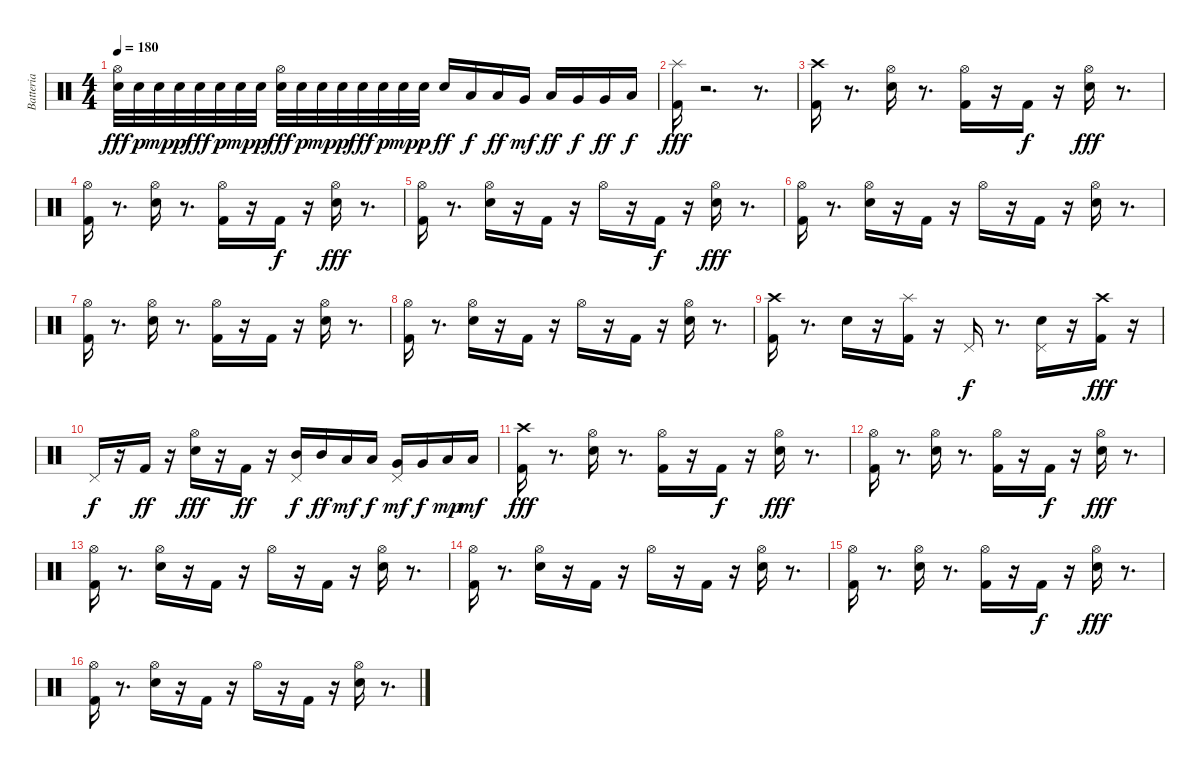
\track ("Batteria" "Batteria") {instrument percussion}
\staff {score}
\articulation defaults
\ts (4 4)
\tempo 180
\clef neutral
\ks c
("Electric Snare (hit)" "Hi-Hat (open)").32{dy fff} "Electric Snare (hit)".32{dy p} "Electric Snare (hit)".32{dy mp} "Electric Snare (hit)".32{dy p} "Electric Snare (hit)".32{dy fff} "Electric Snare (hit)".32{dy p} "Electric Snare (hit)".32{dy mp} "Electric Snare (hit)".32{dy p} ("Electric Snare (hit)" "Hi-Hat (open)").32{dy fff} "Electric Snare (hit)".32{dy p} "Electric Snare (hit)".32{dy mp} "Electric Snare (hit)".32{dy p} "Electric Snare (hit)".32{dy fff} "Electric Snare (hit)".32{dy p} "Electric Snare (hit)".32{dy mp} "Electric Snare (hit)".32{dy p} "Electric Snare (hit)".16{dy ff} "Low Tom (hit)".16{dy f} "Low Tom (hit)".16{dy ff} "Very Low Tom (hit)".16{dy mf} "Low Tom (hit)".16{dy ff} "Very Low Tom (hit)".16{dy f} "Very Low Tom (hit)".16{dy ff} "Low Floor Tom (hit)".16{dy f} |
("Splash (hit)" "Kick (hit) 2").16{dy fff} r.2{d} r.8{d} |
("Crash high (hit)" "Kick (hit) 2").16 r.8{d} ("Electric Snare (hit)" "Hi-Hat (open)").16 r.8{d} ("Kick (hit) 2" "Hi-Hat (open)").16 r.16 "Kick (hit) 2".16{dy f} r.16 ("Electric Snare (hit)" "Hi-Hat (open)").16{dy fff} r.8{d} |
("Kick (hit) 2" "Hi-Hat (open)").16 r.8{d} ("Electric Snare (hit)" "Hi-Hat (open)").16 r.8{d} ("Hi-Hat (open)" "Kick (hit) 2").16 r.16 "Kick (hit) 2".16{dy f} r.16 ("Hi-Hat (open)" "Electric Snare (hit)").16{dy fff} r.8{d} |
("Kick (hit) 2" "Hi-Hat (open)").16 r.8{d} ("Hi-Hat (open)" "Electric Snare (hit)").16 r.16 "Kick (hit) 2".16 r.16 "Hi-Hat (open)".16 r.16 "Kick (hit) 2".16{dy f} r.16 ("Electric Snare (hit)" "Hi-Hat (open)").16{dy fff} r.8{d} |
("Hi-Hat (open)" "Kick (hit) 2").16 r.8{d} ("Electric Snare (hit)" "Hi-Hat (open)").16 r.16 "Kick (hit) 2".16 r.16 "Hi-Hat (open)".16 r.16 "Kick (hit) 2".16 r.16 ("Electric Snare (hit)" "Hi-Hat (open)").16 r.8{d} |
("Kick (hit) 2" "Hi-Hat (open)").16 r.8{d} ("Electric Snare (hit)" "Hi-Hat (open)").16 r.8{d} ("Hi-Hat (open)" "Kick (hit) 2").16 r.16 "Kick (hit) 2".16 r.16 ("Hi-Hat (open)" "Electric Snare (hit)").16 r.8{d} |
("Kick (hit) 2" "Hi-Hat (open)").16 r.8{d} ("Hi-Hat (open)" "Electric Snare (hit)").16 r.16 "Kick (hit) 2".16 r.16 "Hi-Hat (open)".16 r.16 "Kick (hit) 2".16 r.16 ("Electric Snare (hit)" "Hi-Hat (open)").16 r.8{d} |
("Crash high (hit)" "Kick (hit) 2").16 r.8{d} "Electric Snare (hit)".16 r.16 ("Splash (hit)" "Kick (hit) 2").16 r.16 "Pedal Hi-Hat (hit)".16{dy f} r.8{d} ("Pedal Hi-Hat (hit)" "Electric Snare (hit)").16 r.16 ("Crash high (hit)" "Kick (hit) 2").16{dy fff} r.16 |
"Pedal Hi-Hat (hit)".16{dy f} r.16 "Kick (hit) 2".16{dy ff} r.16 ("Electric Snare (hit)" "Hi-Hat (open)").16{dy fff} r.16 "Kick (hit) 2".16{dy ff} r.16 ("Pedal Hi-Hat (hit)" "Mid Tom (hit)").16{dy f} "Mid Tom (hit)".16{dy ff} "Low Tom (hit)".16{dy mf} "Low Tom (hit)".16{dy f} ("Pedal Hi-Hat (hit)" "Very Low Tom (hit)").16{dy mf} "Very Low Tom (hit)".16{dy f} "Low Floor Tom (hit)".16{dy mp} "Low Floor Tom (hit)".16{dy mf} |
("Kick (hit) 2" "Crash high (hit)").16{dy fff} r.8{d} ("Hi-Hat (open)" "Electric Snare (hit)").16 r.8{d} ("Hi-Hat (open)" "Kick (hit) 2").16 r.16 "Kick (hit) 2".16{dy f} r.16 ("Hi-Hat (open)" "Electric Snare (hit)").16{dy fff} r.8{d} |
("Hi-Hat (open)" "Kick (hit) 2").16 r.8{d} ("Hi-Hat (open)" "Electric Snare (hit)").16 r.8{d} ("Kick (hit) 2" "Hi-Hat (open)").16 r.16 "Kick (hit) 2".16{dy f} r.16 ("Electric Snare (hit)" "Hi-Hat (open)").16{dy fff} r.8{d} |
("Hi-Hat (open)" "Kick (hit) 2").16 r.8{d} ("Electric Snare (hit)" "Hi-Hat (open)").16 r.16 "Kick (hit) 2".16 r.16 "Hi-Hat (open)".16 r.16 "Kick (hit) 2".16 r.16 ("Hi-Hat (open)" "Electric Snare (hit)").16 r.8{d} |
("Kick (hit) 2" "Hi-Hat (open)").16 r.8{d} ("Hi-Hat (open)" "Electric Snare (hit)").16 r.16 "Kick (hit) 2".16 r.16 "Hi-Hat (open)".16 r.16 "Kick (hit) 2".16 r.16 ("Hi-Hat (open)" "Electric Snare (hit)").16 r.8{d} |
("Hi-Hat (open)" "Kick (hit) 2").16 r.8{d} ("Hi-Hat (open)" "Electric Snare (hit)").16 r.8{d} ("Kick (hit) 2" "Hi-Hat (open)").16 r.16 "Kick (hit) 2".16{dy f} r.16 ("Electric Snare (hit)" "Hi-Hat (open)").16{dy fff} r.8{d} |
("Hi-Hat (open)" "Kick (hit) 2").16 r.8{d} ("Electric Snare (hit)" "Hi-Hat (open)").16 r.16 "Kick (hit) 2".16 r.16 "Hi-Hat (open)".16 r.16 "Kick (hit) 2".16 r.16 ("Hi-Hat (open)" "Electric Snare (hit)").16 r.8{d}
